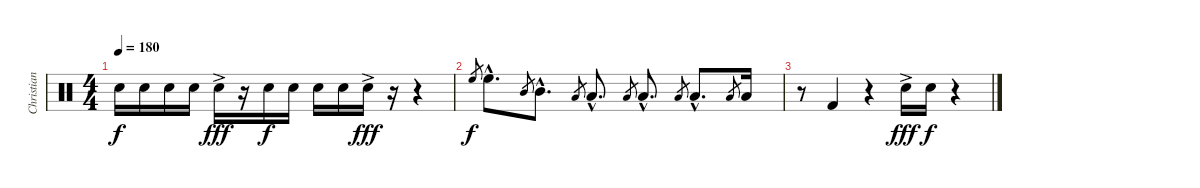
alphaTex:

\track ("Christian Meyer" "Christian ") {instrument percussion}
\staff {score}
\articulation defaults
\ts (4 4)
\tempo 180
\clef neutral
\ks c "Electric Snare (hit)".16{dy f} "Electric Snare (hit)".16 "Electric Snare (hit)".16 "Electric Snare (hit)".16 "Electric Snare (hit)"{ac}.16{dy fff}
r.16 "Electric Snare (hit)".16{dy f} "Electric Snare (hit)".16 "Electric Snare (hit)".16 "Electric Snare (hit)".16 "Electric Snare (hit)"{ac}.16{dy fff} r.16 r.4 |
"High Floor Tom (hit)".8{gr dy f} "High Floor Tom (hit)"{hac}.8{d} "Mid Tom (hit)".8{gr} "Mid Tom (hit)"{hac}.8{d} "Low Tom (hit)".8{gr} "Low Tom (hit)"{hac}.8{d} "Low Tom (hit)".8{gr} "Low Tom (hit)"{hac}.8{d} "Low Floor Tom (hit)".8{gr} "Low Floor Tom (hit)"{hac}.8{d} "Low Floor Tom (hit)".8{gr} "Low Floor Tom (hit)".16 |
r.8 "Kick (hit) 2".4 r.4 "Electric Snare (hit)"{ac}.16{dy fff} "Electric Snare (hit)".16{dy f} r.4
